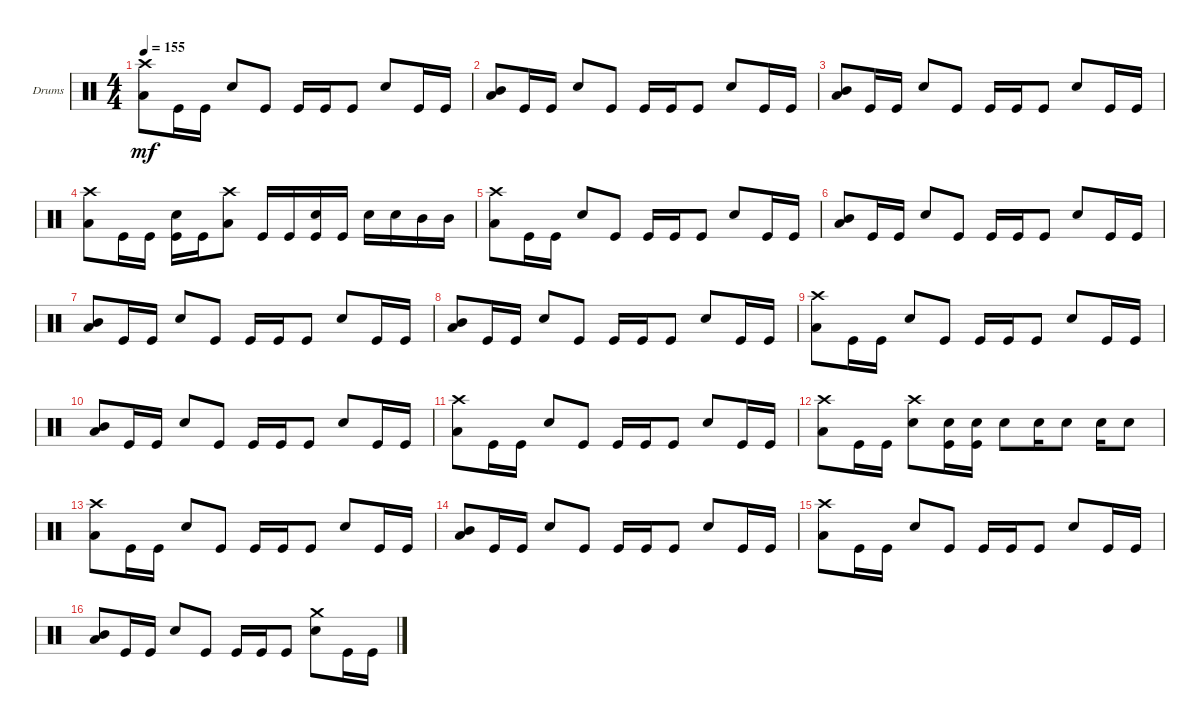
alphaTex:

\defaultSystemsLayout 4
\bracketExtendMode groupsimilarinstruments
\firstSystemTrackNameOrientation horizontal
\otherSystemsTrackNameOrientation horizontal
\track ("Drumkit" "Drums") {instrument percussion}
\staff {score}
\articulation defaults
\ts (4 4)
\tempo 155
\clef neutral
\ks c
("Low Tom (hit)" "Crash high (hit)").8{dy mf} "Kick (hit)".16 "Kick (hit)".16 "Snare (hit) 2".8 "Kick (hit)".8 "Kick (hit)".16 "Kick (hit)".16 "Kick (hit)".8 "Snare (hit) 2".8 "Kick (hit)".16 "Kick (hit)".16 |
("Low Tom (hit)" "Mid Tom (hit)").8 "Kick (hit)".16 "Kick (hit)".16 "Snare (hit) 2".8 "Kick (hit)".8 "Kick (hit)".16 "Kick (hit)".16 "Kick (hit)".8 "Snare (hit) 2".8 "Kick (hit)".16 "Kick (hit)".16 |
("Low Tom (hit)" "Mid Tom (hit)").8 "Kick (hit)".16 "Kick (hit)".16 "Snare (hit) 2".8 "Kick (hit)".8 "Kick (hit)".16 "Kick (hit)".16 "Kick (hit)".8 "Snare (hit) 2".8 "Kick (hit)".16 "Kick (hit)".16 |
("Low Tom (hit)" "Crash high (hit)").8 "Kick (hit)".16 "Kick (hit)".16 ("Kick (hit)" "Snare (hit) 2").16 "Kick (hit)".16 ("Low Tom (hit)" "Crash high (hit)").8 "Kick (hit)".16 "Kick (hit)".16 ("Kick (hit)" "Snare (hit) 2").16 "Kick (hit)".16 "Snare (hit) 2".16 "Snare (hit) 2".16 "Mid Tom (hit)".16 "Mid Tom (hit)".16 |
("Low Tom (hit)" "Crash high (hit)").8 "Kick (hit)".16 "Kick (hit)".16 "Snare (hit) 2".8 "Kick (hit)".8 "Kick (hit)".16 "Kick (hit)".16 "Kick (hit)".8 "Snare (hit) 2".8 "Kick (hit)".16 "Kick (hit)".16 |
("Low Tom (hit)" "Mid Tom (hit)").8 "Kick (hit)".16 "Kick (hit)".16 "Snare (hit) 2".8 "Kick (hit)".8 "Kick (hit)".16 "Kick (hit)".16 "Kick (hit)".8 "Snare (hit) 2".8 "Kick (hit)".16 "Kick (hit)".16 |
("Low Tom (hit)" "Mid Tom (hit)").8 "Kick (hit)".16 "Kick (hit)".16 "Snare (hit) 2".8 "Kick (hit)".8 "Kick (hit)".16 "Kick (hit)".16 "Kick (hit)".8 "Snare (hit) 2".8 "Kick (hit)".16 "Kick (hit)".16 |
("Low Tom (hit)" "Mid Tom (hit)").8 "Kick (hit)".16 "Kick (hit)".16 "Snare (hit) 2".8 "Kick (hit)".8 "Kick (hit)".16 "Kick (hit)".16 "Kick (hit)".8 "Snare (hit) 2".8 "Kick (hit)".16 "Kick (hit)".16 |
("Low Tom (hit)" "Crash high (hit)").8 "Kick (hit)".16 "Kick (hit)".16 "Snare (hit) 2".8 "Kick (hit)".8 "Kick (hit)".16 "Kick (hit)".16 "Kick (hit)".8 "Snare (hit) 2".8 "Kick (hit)".16 "Kick (hit)".16 |
("Low Tom (hit)" "Mid Tom (hit)").8 "Kick (hit)".16 "Kick (hit)".16 "Snare (hit) 2".8 "Kick (hit)".8 "Kick (hit)".16 "Kick (hit)".16 "Kick (hit)".8 "Snare (hit) 2".8 "Kick (hit)".16 "Kick (hit)".16 |
("Low Tom (hit)" "Crash high (hit)").8 "Kick (hit)".16 "Kick (hit)".16 "Snare (hit) 2".8 "Kick (hit)".8 "Kick (hit)".16 "Kick (hit)".16 "Kick (hit)".8 "Snare (hit) 2".8 "Kick (hit)".16 "Kick (hit)".16 |
("Low Tom (hit)" "Crash high (hit)").8 "Kick (hit)".16 "Kick (hit)".16 ("Snare (hit) 2" "Crash high (hit)").8 ("Kick (hit)" "Snare (hit) 2").16 ("Kick (hit)" "Snare (hit) 2").16 "Snare (hit) 2".8 "Snare (hit) 2".16 "Snare (hit) 2".8 "Snare (hit) 2".16 "Snare (hit) 2".8 |
("Low Tom (hit)" "Crash high (hit)").8 "Kick (hit)".16 "Kick (hit)".16 "Snare (hit) 2".8 "Kick (hit)".8 "Kick (hit)".16 "Kick (hit)".16 "Kick (hit)".8 "Snare (hit) 2".8 "Kick (hit)".16 "Kick (hit)".16 |
("Low Tom (hit)" "Mid Tom (hit)").8 "Kick (hit)".16 "Kick (hit)".16 "Snare (hit) 2".8 "Kick (hit)".8 "Kick (hit)".16 "Kick (hit)".16 "Kick (hit)".8 "Snare (hit) 2".8 "Kick (hit)".16 "Kick (hit)".16 |
("Low Tom (hit)" "Crash high (hit)").8 "Kick (hit)".16 "Kick (hit)".16 "Snare (hit) 2".8 "Kick (hit)".8 "Kick (hit)".16 "Kick (hit)".16 "Kick (hit)".8 "Snare (hit) 2".8 "Kick (hit)".16 "Kick (hit)".16 |
("Low Tom (hit)" "Mid Tom (hit)").8 "Kick (hit)".16 "Kick (hit)".16 "Snare (hit) 2".8 "Kick (hit)".8 "Kick (hit)".16 "Kick (hit)".16 "Kick (hit)".8 ("Snare (hit) 2" "Crash medium (hit)").8 "Kick (hit)".16 "Kick (hit)".16
